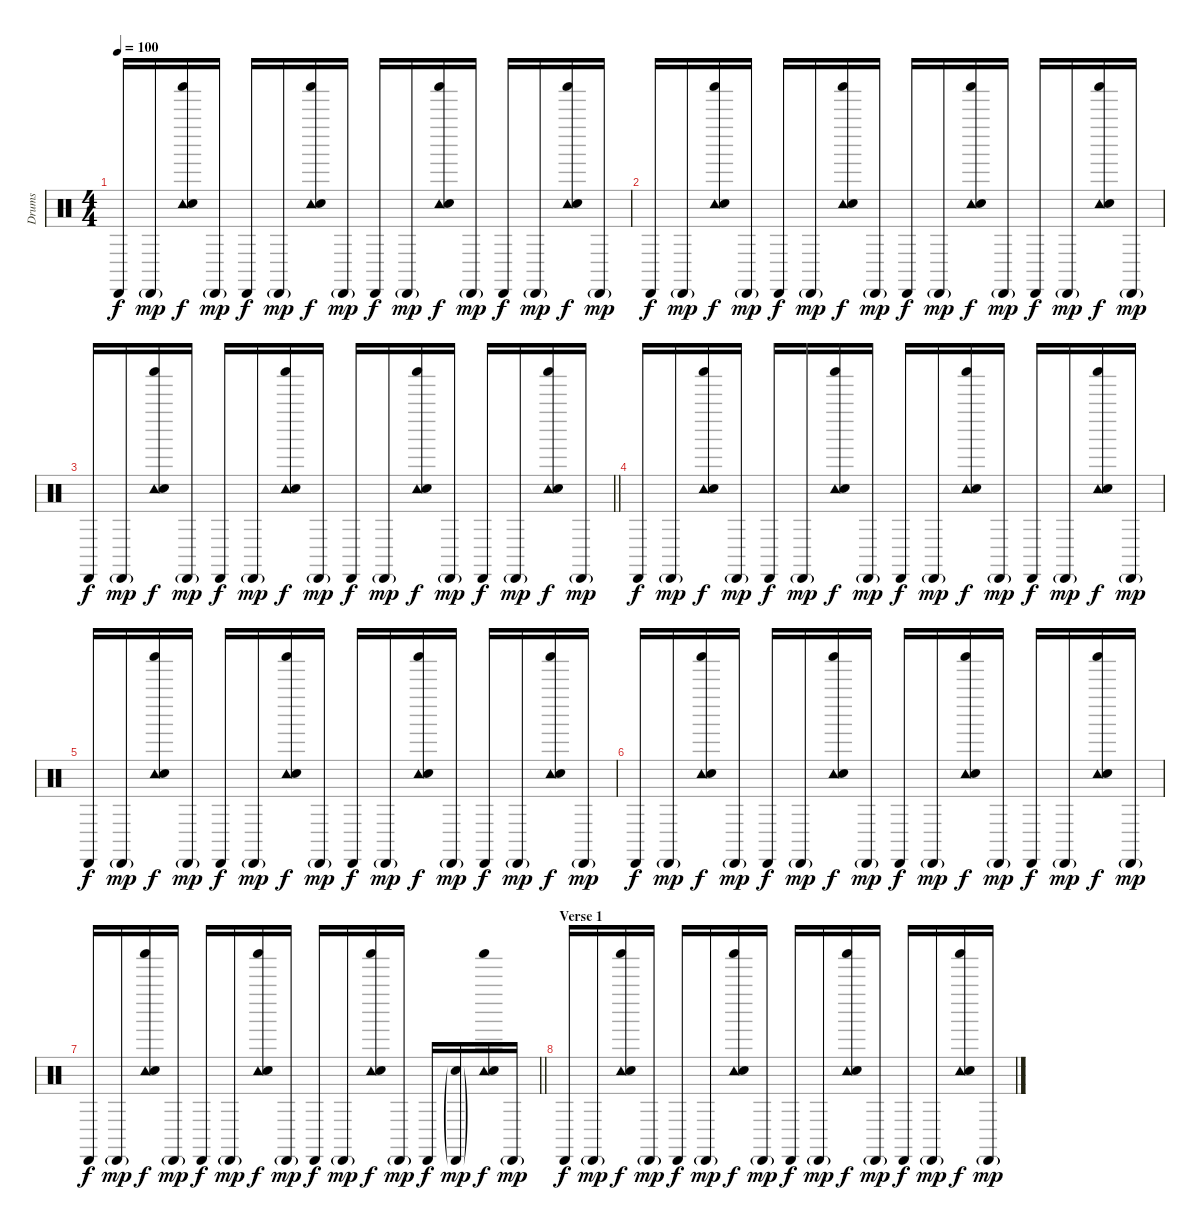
\track ("Drums" "Drums") {instrument percussion}
\staff {score}
\articulation defaults
\ts (4 4)
\tempo 100
\clef neutral
\ks c "Cabasa (hit)".16{dy f} "Cabasa (hit)"{g}.16{dy mp}
("Tambourine (hit)" "Shaker (hit)" "Electric Snare (hit)").16{dy f} "Cabasa (hit)"{g}.16{dy mp} "Cabasa (hit)".16{dy f} "Cabasa (hit)"{g}.16{dy mp} ("Tambourine (hit)" "Shaker (hit)" "Electric Snare (hit)").16{dy f} "Cabasa (hit)"{g}.16{dy mp} "Cabasa (hit)".16{dy f} "Cabasa (hit)"{g}.16{dy mp} ("Tambourine (hit)" "Shaker (hit)" "Electric Snare (hit)").16{dy f} "Cabasa (hit)"{g}.16{dy mp} "Cabasa (hit)".16{dy f} "Cabasa (hit)"{g}.16{dy mp} ("Tambourine (hit)" "Shaker (hit)" "Electric Snare (hit)").16{dy f} "Cabasa (hit)"{g}.16{dy mp} |
"Cabasa (hit)".16{dy f} "Cabasa (hit)"{g}.16{dy mp} ("Tambourine (hit)" "Shaker (hit)" "Electric Snare (hit)").16{dy f} "Cabasa (hit)"{g}.16{dy mp} "Cabasa (hit)".16{dy f} "Cabasa (hit)"{g}.16{dy mp} ("Tambourine (hit)" "Shaker (hit)" "Electric Snare (hit)").16{dy f} "Cabasa (hit)"{g}.16{dy mp} "Cabasa (hit)".16{dy f} "Cabasa (hit)"{g}.16{dy mp} ("Tambourine (hit)" "Shaker (hit)" "Electric Snare (hit)").16{dy f} "Cabasa (hit)"{g}.16{dy mp} "Cabasa (hit)".16{dy f} "Cabasa (hit)"{g}.16{dy mp} ("Tambourine (hit)" "Shaker (hit)" "Electric Snare (hit)").16{dy f} "Cabasa (hit)"{g}.16{dy mp} |
\barLineRight lightlight "Cabasa (hit)".16{dy f} "Cabasa (hit)"{g}.16{dy mp}
("Tambourine (hit)" "Shaker (hit)" "Electric Snare (hit)").16{dy f} "Cabasa (hit)"{g}.16{dy mp} "Cabasa (hit)".16{dy f} "Cabasa (hit)"{g}.16{dy mp} ("Tambourine (hit)" "Shaker (hit)" "Electric Snare (hit)").16{dy f} "Cabasa (hit)"{g}.16{dy mp} "Cabasa (hit)".16{dy f} "Cabasa (hit)"{g}.16{dy mp} ("Tambourine (hit)" "Shaker (hit)" "Electric Snare (hit)").16{dy f} "Cabasa (hit)"{g}.16{dy mp} "Cabasa (hit)".16{dy f} "Cabasa (hit)"{g}.16{dy mp} ("Tambourine (hit)" "Shaker (hit)" "Electric Snare (hit)").16{dy f} "Cabasa (hit)"{g}.16{dy mp} |
"Cabasa (hit)".16{dy f} "Cabasa (hit)"{g}.16{dy mp} ("Tambourine (hit)" "Shaker (hit)" "Electric Snare (hit)").16{dy f} "Cabasa (hit)"{g}.16{dy mp} "Cabasa (hit)".16{dy f} "Cabasa (hit)"{g}.16{dy mp} ("Tambourine (hit)" "Shaker (hit)" "Electric Snare (hit)").16{dy f} "Cabasa (hit)"{g}.16{dy mp} "Cabasa (hit)".16{dy f} "Cabasa (hit)"{g}.16{dy mp} ("Tambourine (hit)" "Shaker (hit)" "Electric Snare (hit)").16{dy f} "Cabasa (hit)"{g}.16{dy mp} "Cabasa (hit)".16{dy f} "Cabasa (hit)"{g}.16{dy mp} ("Tambourine (hit)" "Shaker (hit)" "Electric Snare (hit)").16{dy f} "Cabasa (hit)"{g}.16{dy mp} |
"Cabasa (hit)".16{dy f} "Cabasa (hit)"{g}.16{dy mp} ("Tambourine (hit)" "Shaker (hit)" "Electric Snare (hit)").16{dy f} "Cabasa (hit)"{g}.16{dy mp} "Cabasa (hit)".16{dy f} "Cabasa (hit)"{g}.16{dy mp} ("Tambourine (hit)" "Shaker (hit)" "Electric Snare (hit)").16{dy f} "Cabasa (hit)"{g}.16{dy mp} "Cabasa (hit)".16{dy f} "Cabasa (hit)"{g}.16{dy mp} ("Tambourine (hit)" "Shaker (hit)" "Electric Snare (hit)").16{dy f} "Cabasa (hit)"{g}.16{dy mp} "Cabasa (hit)".16{dy f} "Cabasa (hit)"{g}.16{dy mp} ("Tambourine (hit)" "Shaker (hit)" "Electric Snare (hit)").16{dy f} "Cabasa (hit)"{g}.16{dy mp} |
"Cabasa (hit)".16{dy f} "Cabasa (hit)"{g}.16{dy mp} ("Tambourine (hit)" "Shaker (hit)" "Electric Snare (hit)").16{dy f} "Cabasa (hit)"{g}.16{dy mp} "Cabasa (hit)".16{dy f} "Cabasa (hit)"{g}.16{dy mp} ("Tambourine (hit)" "Shaker (hit)" "Electric Snare (hit)").16{dy f} "Cabasa (hit)"{g}.16{dy mp} "Cabasa (hit)".16{dy f} "Cabasa (hit)"{g}.16{dy mp} ("Tambourine (hit)" "Shaker (hit)" "Electric Snare (hit)").16{dy f} "Cabasa (hit)"{g}.16{dy mp} "Cabasa (hit)".16{dy f} "Cabasa (hit)"{g}.16{dy mp} ("Tambourine (hit)" "Shaker (hit)" "Electric Snare (hit)").16{dy f} "Cabasa (hit)"{g}.16{dy mp} |
\barLineRight lightlight "Cabasa (hit)".16{dy f} "Cabasa (hit)"{g}.16{dy mp}
("Tambourine (hit)" "Shaker (hit)" "Electric Snare (hit)").16{dy f} "Cabasa (hit)"{g}.16{dy mp} "Cabasa (hit)".16{dy f} "Cabasa (hit)"{g}.16{dy mp} ("Tambourine (hit)" "Shaker (hit)" "Electric Snare (hit)").16{dy f} "Cabasa (hit)"{g}.16{dy mp} "Cabasa (hit)".16{dy f} "Cabasa (hit)"{g}.16{dy mp} ("Tambourine (hit)" "Shaker (hit)" "Electric Snare (hit)").16{dy f} "Cabasa (hit)"{g}.16{dy mp} "Cabasa (hit)".16{dy f} ("Cabasa (hit)"{g} "Electric Snare (hit)"{g}).16{dy mp} ("Tambourine (hit)" "Shaker (hit)" "Electric Snare (hit)").16{dy f} "Cabasa (hit)"{g}.16{dy mp} |
\section ("" "Verse 1")
"Cabasa (hit)".16{dy f} "Cabasa (hit)"{g}.16{dy mp} ("Tambourine (hit)" "Shaker (hit)" "Electric Snare (hit)").16{dy f} "Cabasa (hit)"{g}.16{dy mp} "Cabasa (hit)".16{dy f} "Cabasa (hit)"{g}.16{dy mp} ("Tambourine (hit)" "Shaker (hit)" "Electric Snare (hit)").16{dy f} "Cabasa (hit)"{g}.16{dy mp} "Cabasa (hit)".16{dy f} "Cabasa (hit)"{g}.16{dy mp} ("Tambourine (hit)" "Shaker (hit)" "Electric Snare (hit)").16{dy f} "Cabasa (hit)"{g}.16{dy mp} "Cabasa (hit)".16{dy f} "Cabasa (hit)"{g}.16{dy mp} ("Tambourine (hit)" "Shaker (hit)" "Electric Snare (hit)").16{dy f} "Cabasa (hit)"{g}.16{dy mp}
